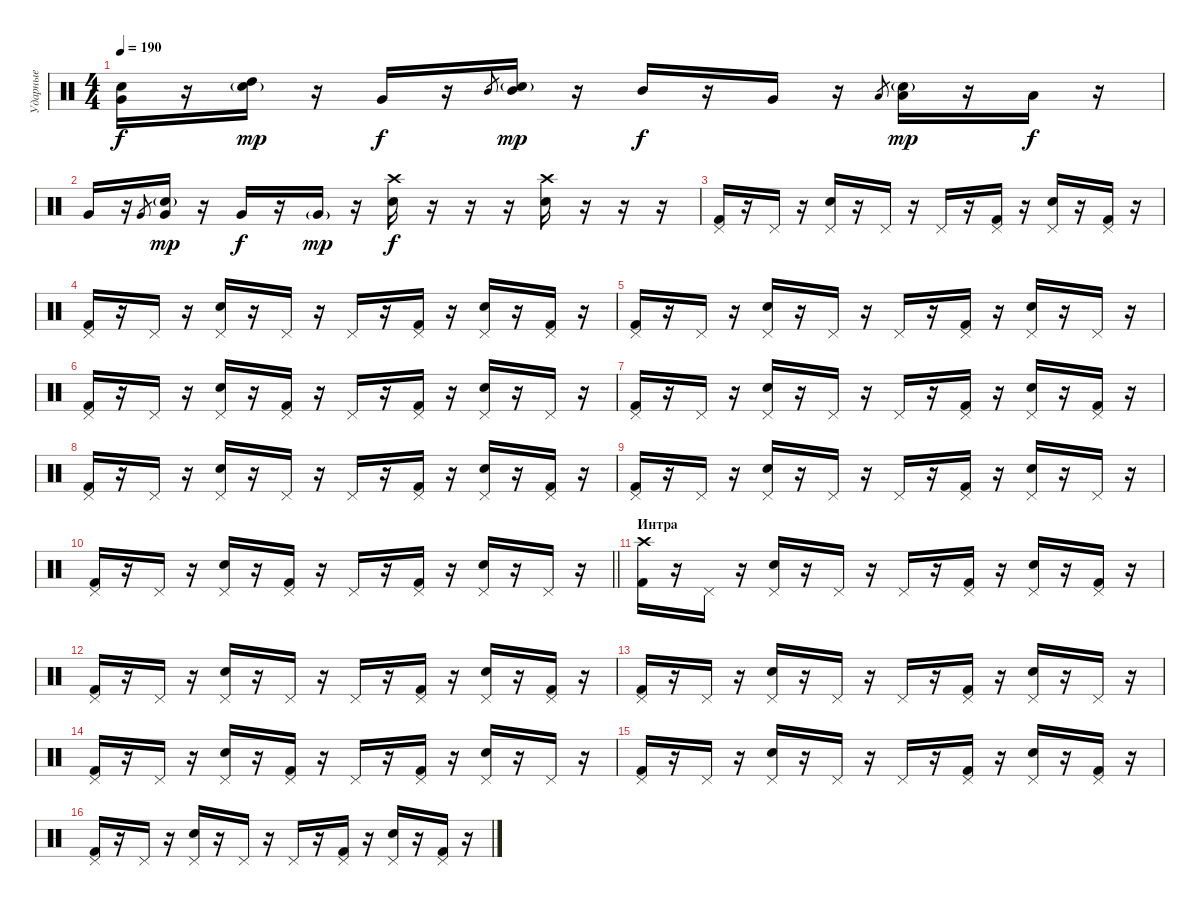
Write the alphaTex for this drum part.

\track ("Ударные" "Ударные") {instrument percussion}
\staff {score}
\articulation defaults
\ts (4 4)
\tempo 190
\clef neutral
\ks c
("Electric Snare (hit)" "Very Low Tom (hit)").16{dy f} r.16 ("Electric Snare (hit)"{g} "High Tom (hit)").16{dy mp} r.16 "Very Low Tom (hit)".16{dy f} r.16 "Mid Tom (hit)".8{gr} ("Electric Snare (hit)"{g} "Mid Tom (hit)").16{dy mp} r.16 "Mid Tom (hit)".16{dy f} r.16 "Very Low Tom (hit)".16 r.16 "Low Tom (hit)".8{gr} ("Electric Snare (hit)"{g} "Low Tom (hit)").16{dy mp} r.16 "Low Tom (hit)".16{dy f} r.16 |
"Very Low Tom (hit)".16 r.16 "Very Low Tom (hit)".8{gr} ("Electric Snare (hit)"{g} "Very Low Tom (hit)").16{dy mp} r.16 "Very Low Tom (hit)".16{dy f} r.16 "Very Low Tom (hit)"{g}.16{dy mp} r.16 ("Crash high (hit)" "Electric Snare (hit)").16{dy f} r.16 r.16 r.16 ("Crash high (hit)" "Electric Snare (hit)").16 r.16 r.16 r.16 |
("Pedal Hi-Hat (hit)" "Kick (hit) 2").16 r.16 "Pedal Hi-Hat (hit)".16 r.16 ("Pedal Hi-Hat (hit)" "Electric Snare (hit)").16 r.16 "Pedal Hi-Hat (hit)".16 r.16 "Pedal Hi-Hat (hit)".16 r.16 ("Pedal Hi-Hat (hit)" "Kick (hit) 2").16 r.16 ("Pedal Hi-Hat (hit)" "Electric Snare (hit)").16 r.16 ("Pedal Hi-Hat (hit)" "Kick (hit) 2").16 r.16 |
("Pedal Hi-Hat (hit)" "Kick (hit) 2").16 r.16 "Pedal Hi-Hat (hit)".16 r.16 ("Pedal Hi-Hat (hit)" "Electric Snare (hit)").16 r.16 "Pedal Hi-Hat (hit)".16 r.16 "Pedal Hi-Hat (hit)".16 r.16 ("Pedal Hi-Hat (hit)" "Kick (hit) 2").16 r.16 ("Pedal Hi-Hat (hit)" "Electric Snare (hit)").16 r.16 ("Pedal Hi-Hat (hit)" "Kick (hit) 2").16 r.16 |
("Pedal Hi-Hat (hit)" "Kick (hit) 2").16 r.16 "Pedal Hi-Hat (hit)".16 r.16 ("Pedal Hi-Hat (hit)" "Electric Snare (hit)").16 r.16 "Pedal Hi-Hat (hit)".16 r.16 "Pedal Hi-Hat (hit)".16 r.16 ("Pedal Hi-Hat (hit)" "Kick (hit) 2").16 r.16 ("Pedal Hi-Hat (hit)" "Electric Snare (hit)").16 r.16 "Pedal Hi-Hat (hit)".16 r.16 |
("Pedal Hi-Hat (hit)" "Kick (hit) 2").16 r.16 "Pedal Hi-Hat (hit)".16 r.16 ("Pedal Hi-Hat (hit)" "Electric Snare (hit)").16 r.16 ("Pedal Hi-Hat (hit)" "Kick (hit) 2").16 r.16 "Pedal Hi-Hat (hit)".16 r.16 ("Pedal Hi-Hat (hit)" "Kick (hit) 2").16 r.16 ("Pedal Hi-Hat (hit)" "Electric Snare (hit)").16 r.16 "Pedal Hi-Hat (hit)".16 r.16 |
("Pedal Hi-Hat (hit)" "Kick (hit) 2").16 r.16 "Pedal Hi-Hat (hit)".16 r.16 ("Pedal Hi-Hat (hit)" "Electric Snare (hit)").16 r.16 "Pedal Hi-Hat (hit)".16 r.16 "Pedal Hi-Hat (hit)".16 r.16 ("Pedal Hi-Hat (hit)" "Kick (hit) 2").16 r.16 ("Pedal Hi-Hat (hit)" "Electric Snare (hit)").16 r.16 ("Pedal Hi-Hat (hit)" "Kick (hit) 2").16 r.16 |
("Pedal Hi-Hat (hit)" "Kick (hit) 2").16 r.16 "Pedal Hi-Hat (hit)".16 r.16 ("Pedal Hi-Hat (hit)" "Electric Snare (hit)").16 r.16 "Pedal Hi-Hat (hit)".16 r.16 "Pedal Hi-Hat (hit)".16 r.16 ("Pedal Hi-Hat (hit)" "Kick (hit) 2").16 r.16 ("Pedal Hi-Hat (hit)" "Electric Snare (hit)").16 r.16 ("Pedal Hi-Hat (hit)" "Kick (hit) 2").16 r.16 |
("Pedal Hi-Hat (hit)" "Kick (hit) 2").16 r.16 "Pedal Hi-Hat (hit)".16 r.16 ("Pedal Hi-Hat (hit)" "Electric Snare (hit)").16 r.16 "Pedal Hi-Hat (hit)".16 r.16 "Pedal Hi-Hat (hit)".16 r.16 ("Pedal Hi-Hat (hit)" "Kick (hit) 2").16 r.16 ("Pedal Hi-Hat (hit)" "Electric Snare (hit)").16 r.16 "Pedal Hi-Hat (hit)".16 r.16 |
\barLineRight lightlight
("Pedal Hi-Hat (hit)" "Kick (hit) 2").16 r.16 "Pedal Hi-Hat (hit)".16 r.16 ("Pedal Hi-Hat (hit)" "Electric Snare (hit)").16 r.16 ("Pedal Hi-Hat (hit)" "Kick (hit) 2").16 r.16 "Pedal Hi-Hat (hit)".16 r.16 ("Pedal Hi-Hat (hit)" "Kick (hit) 2").16 r.16 ("Pedal Hi-Hat (hit)" "Electric Snare (hit)").16 r.16 "Pedal Hi-Hat (hit)".16 r.16 |
\section ("" "Интра")
("Crash high (hit)" "Kick (hit) 2").16 r.16 "Pedal Hi-Hat (hit)".16 r.16 ("Pedal Hi-Hat (hit)" "Electric Snare (hit)").16 r.16 "Pedal Hi-Hat (hit)".16 r.16 "Pedal Hi-Hat (hit)".16 r.16 ("Pedal Hi-Hat (hit)" "Kick (hit) 2").16 r.16 ("Pedal Hi-Hat (hit)" "Electric Snare (hit)").16 r.16 ("Pedal Hi-Hat (hit)" "Kick (hit) 2").16 r.16 |
("Pedal Hi-Hat (hit)" "Kick (hit) 2").16 r.16 "Pedal Hi-Hat (hit)".16 r.16 ("Pedal Hi-Hat (hit)" "Electric Snare (hit)").16 r.16 "Pedal Hi-Hat (hit)".16 r.16 "Pedal Hi-Hat (hit)".16 r.16 ("Pedal Hi-Hat (hit)" "Kick (hit) 2").16 r.16 ("Pedal Hi-Hat (hit)" "Electric Snare (hit)").16 r.16 ("Pedal Hi-Hat (hit)" "Kick (hit) 2").16 r.16 |
("Pedal Hi-Hat (hit)" "Kick (hit) 2").16 r.16 "Pedal Hi-Hat (hit)".16 r.16 ("Pedal Hi-Hat (hit)" "Electric Snare (hit)").16 r.16 "Pedal Hi-Hat (hit)".16 r.16 "Pedal Hi-Hat (hit)".16 r.16 ("Pedal Hi-Hat (hit)" "Kick (hit) 2").16 r.16 ("Pedal Hi-Hat (hit)" "Electric Snare (hit)").16 r.16 "Pedal Hi-Hat (hit)".16 r.16 |
("Pedal Hi-Hat (hit)" "Kick (hit) 2").16 r.16 "Pedal Hi-Hat (hit)".16 r.16 ("Pedal Hi-Hat (hit)" "Electric Snare (hit)").16 r.16 ("Pedal Hi-Hat (hit)" "Kick (hit) 2").16 r.16 "Pedal Hi-Hat (hit)".16 r.16 ("Pedal Hi-Hat (hit)" "Kick (hit) 2").16 r.16 ("Pedal Hi-Hat (hit)" "Electric Snare (hit)").16 r.16 "Pedal Hi-Hat (hit)".16 r.16 |
("Pedal Hi-Hat (hit)" "Kick (hit) 2").16 r.16 "Pedal Hi-Hat (hit)".16 r.16 ("Pedal Hi-Hat (hit)" "Electric Snare (hit)").16 r.16 "Pedal Hi-Hat (hit)".16 r.16 "Pedal Hi-Hat (hit)".16 r.16 ("Pedal Hi-Hat (hit)" "Kick (hit) 2").16 r.16 ("Pedal Hi-Hat (hit)" "Electric Snare (hit)").16 r.16 ("Pedal Hi-Hat (hit)" "Kick (hit) 2").16 r.16 |
("Pedal Hi-Hat (hit)" "Kick (hit) 2").16 r.16 "Pedal Hi-Hat (hit)".16 r.16 ("Pedal Hi-Hat (hit)" "Electric Snare (hit)").16 r.16 "Pedal Hi-Hat (hit)".16 r.16 "Pedal Hi-Hat (hit)".16 r.16 ("Pedal Hi-Hat (hit)" "Kick (hit) 2").16 r.16 ("Pedal Hi-Hat (hit)" "Electric Snare (hit)").16 r.16 ("Pedal Hi-Hat (hit)" "Kick (hit) 2").16 r.16
